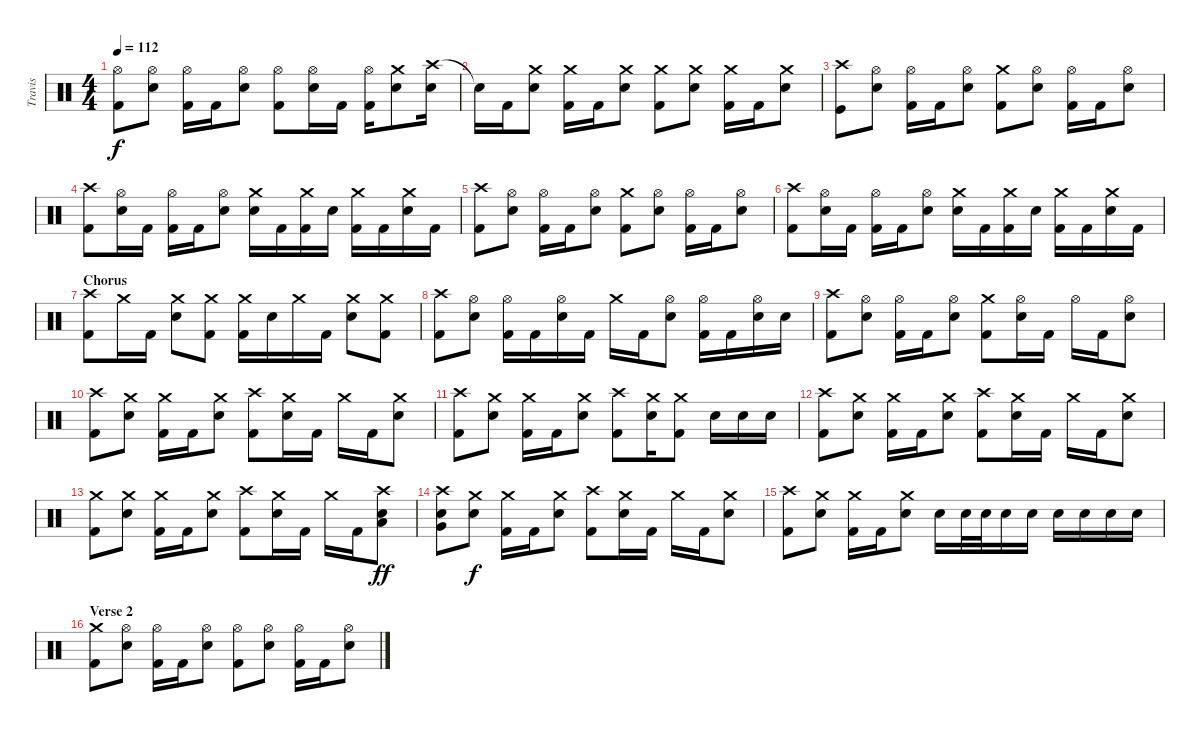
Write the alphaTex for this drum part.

\track ("Travis" "Travis") {instrument percussion}
\staff {score}
\articulation defaults
\ts (4 4)
\tempo 112
\clef neutral
\ks c
("Hi-Hat (open)" "Kick (hit) 2").8{dy f} ("Hi-Hat (open)" "Electric Snare (hit)").8 ("Hi-Hat (open)" "Kick (hit) 2").16 "Kick (hit) 2".16 ("Hi-Hat (open)" "Electric Snare (hit)").8 ("Hi-Hat (open)" "Kick (hit) 2").8 ("Hi-Hat (open)" "Electric Snare (hit)").16 "Kick (hit) 2".16 ("Hi-Hat (open)" "Kick (hit) 2").16 ("Crash medium (hit)" "Electric Snare (hit)").8 ("Crash high (hit)" "Electric Snare (hit)").16 |
"Snare (hit)"{t}.16 "Kick (hit) 2".16 ("Crash medium (hit)" "Electric Snare (hit)").8 ("Crash medium (hit)" "Kick (hit) 2").16 "Kick (hit) 2".16 ("Crash medium (hit)" "Electric Snare (hit)").8 ("Crash medium (hit)" "Kick (hit) 2").8 ("Crash medium (hit)" "Electric Snare (hit)").8 ("Crash medium (hit)" "Kick (hit) 2").16 "Kick (hit) 2".16 ("Crash medium (hit)" "Electric Snare (hit)").8 |
("Crash high (hit)" "Kick (hit)").8 ("Hi-Hat (open)" "Electric Snare (hit)").8 ("Hi-Hat (open)" "Kick (hit) 2").16 "Kick (hit) 2".16 ("Hi-Hat (open)" "Electric Snare (hit)").8 ("Crash medium (hit)" "Kick (hit) 2").8 ("Hi-Hat (open)" "Electric Snare (hit)").8 ("Hi-Hat (open)" "Kick (hit) 2").16 "Kick (hit) 2".16 ("Hi-Hat (open)" "Electric Snare (hit)").8 |
("Crash high (hit)" "Kick (hit) 2").8 ("Hi-Hat (open)" "Electric Snare (hit)").16 "Kick (hit) 2".16 ("Hi-Hat (open)" "Kick (hit) 2").16 "Kick (hit) 2".16 ("Hi-Hat (open)" "Electric Snare (hit)").8 ("Crash medium (hit)" "Electric Snare (hit)").16 "Kick (hit) 2".16 ("Crash medium (hit)" "Kick (hit) 2").16 "Electric Snare (hit)".16 ("Crash medium (hit)" "Kick (hit) 2").16 "Kick (hit) 2".16 ("Crash medium (hit)" "Electric Snare (hit)").16 "Kick (hit) 2".16 |
("Crash high (hit)" "Kick (hit) 2").8 ("Hi-Hat (open)" "Electric Snare (hit)").8 ("Hi-Hat (open)" "Kick (hit) 2").16 "Kick (hit) 2".16 ("Hi-Hat (open)" "Electric Snare (hit)").8 ("Crash medium (hit)" "Kick (hit) 2").8 ("Hi-Hat (open)" "Electric Snare (hit)").8 ("Hi-Hat (open)" "Kick (hit) 2").16 "Kick (hit) 2".16 ("Hi-Hat (open)" "Electric Snare (hit)").8 |
("Crash high (hit)" "Kick (hit) 2").8 ("Hi-Hat (open)" "Electric Snare (hit)").16 "Kick (hit) 2".16 ("Hi-Hat (open)" "Kick (hit) 2").16 "Kick (hit) 2".16 ("Hi-Hat (open)" "Electric Snare (hit)").8 ("Crash medium (hit)" "Electric Snare (hit)").16 "Kick (hit) 2".16 ("Crash medium (hit)" "Kick (hit) 2").16 "Electric Snare (hit)".16 ("Crash medium (hit)" "Kick (hit) 2").16 "Kick (hit) 2".16 ("Crash medium (hit)" "Electric Snare (hit)").16 "Kick (hit) 2".16 |
\section ("" "Chorus")
("Crash high (hit)" "Kick (hit) 2").8 "Crash medium (hit)".16 "Kick (hit) 2".16 ("Crash medium (hit)" "Electric Snare (hit)").8 ("Crash medium (hit)" "Kick (hit) 2").8 ("Crash medium (hit)" "Kick (hit) 2").16 "Electric Snare (hit)".16 "Crash medium (hit)".16 "Kick (hit) 2".16 ("Crash medium (hit)" "Electric Snare (hit)").8 ("Crash medium (hit)" "Kick (hit) 2").8 |
("Crash high (hit)" "Kick (hit) 2").8 ("Hi-Hat (open)" "Electric Snare (hit)").8 ("Hi-Hat (open)" "Kick (hit) 2").16 "Kick (hit) 2".16 ("Hi-Hat (open)" "Electric Snare (hit)").16 "Kick (hit) 2".16 "Crash medium (hit)".16 "Kick (hit) 2".16 ("Hi-Hat (open)" "Electric Snare (hit)").8 ("Hi-Hat (open)" "Kick (hit) 2").16 "Kick (hit) 2".16 ("Hi-Hat (open)" "Electric Snare (hit)").16 "Electric Snare (hit)".16 |
("Crash high (hit)" "Kick (hit) 2").8 ("Hi-Hat (open)" "Electric Snare (hit)").8 ("Hi-Hat (open)" "Kick (hit) 2").16 "Kick (hit) 2".16 ("Hi-Hat (open)" "Electric Snare (hit)").8 ("Crash medium (hit)" "Kick (hit) 2").8 ("Hi-Hat (open)" "Electric Snare (hit)").16 "Kick (hit) 2".16 "Hi-Hat (open)".16 "Kick (hit) 2".16 ("Hi-Hat (open)" "Electric Snare (hit)").8 |
("Crash high (hit)" "Kick (hit) 2").8 ("Crash medium (hit)" "Electric Snare (hit)").8 ("Crash medium (hit)" "Kick (hit) 2").16 "Kick (hit) 2".16 ("Crash medium (hit)" "Electric Snare (hit)").8 ("Crash high (hit)" "Kick (hit) 2").8 ("Crash medium (hit)" "Electric Snare (hit)").16 "Kick (hit) 2".16 "Crash medium (hit)".16 "Kick (hit) 2".16 ("Crash medium (hit)" "Electric Snare (hit)").8 |
("Crash high (hit)" "Kick (hit) 2").8 ("Crash medium (hit)" "Electric Snare (hit)").8 ("Crash medium (hit)" "Kick (hit) 2").16 "Kick (hit) 2".16 ("Crash medium (hit)" "Electric Snare (hit)").8 ("Crash high (hit)" "Kick (hit) 2").8 ("Crash medium (hit)" "Electric Snare (hit)").16 ("Crash medium (hit)" "Kick (hit) 2").8 "Electric Snare (hit)".16 "Electric Snare (hit)".16 "Electric Snare (hit)".16 |
("Crash high (hit)" "Kick (hit) 2").8 ("Crash medium (hit)" "Electric Snare (hit)").8 ("Crash medium (hit)" "Kick (hit) 2").16 "Kick (hit) 2".16 ("Crash medium (hit)" "Electric Snare (hit)").8 ("Crash high (hit)" "Kick (hit) 2").8 ("Crash medium (hit)" "Electric Snare (hit)").16 "Kick (hit) 2".16 "Crash medium (hit)".16 "Kick (hit) 2".16 ("Crash medium (hit)" "Electric Snare (hit)").8 |
("Crash medium (hit)" "Kick (hit) 2").8 ("Crash medium (hit)" "Electric Snare (hit)").8 ("Crash medium (hit)" "Kick (hit) 2").16 "Kick (hit) 2".16 ("Crash medium (hit)" "Electric Snare (hit)").8 ("Crash high (hit)" "Kick (hit) 2").8 ("Crash medium (hit)" "Electric Snare (hit)").16 "Kick (hit) 2".16 "Crash medium (hit)".16 "Kick (hit) 2".16 ("Crash high (hit)" "Low Tom (hit)" "Electric Snare (hit)").8{dy ff} |
("Crash high (hit)" "Very Low Tom (hit)" "Electric Snare (hit)").8 ("Crash medium (hit)" "Electric Snare (hit)").8{dy f} ("Crash medium (hit)" "Kick (hit) 2").16 "Kick (hit) 2".16 ("Crash medium (hit)" "Electric Snare (hit)").8 ("Crash high (hit)" "Kick (hit) 2").8 ("Crash medium (hit)" "Electric Snare (hit)").16 "Kick (hit) 2".16 "Crash medium (hit)".16 "Kick (hit) 2".16 ("Crash medium (hit)" "Electric Snare (hit)").8 |
("Crash high (hit)" "Kick (hit) 2").8 ("Crash medium (hit)" "Electric Snare (hit)").8 ("Crash medium (hit)" "Kick (hit) 2").16 "Kick (hit) 2".16 ("Crash medium (hit)" "Electric Snare (hit)").8 "Electric Snare (hit)".16 "Electric Snare (hit)".32 "Electric Snare (hit)".32 "Electric Snare (hit)".16 "Electric Snare (hit)".16 "Electric Snare (hit)".16 "Electric Snare (hit)".16 "Electric Snare (hit)".16 "Electric Snare (hit)".16 |
\section ("" "Verse 2")
("Crash medium (hit)" "Kick (hit) 2").8 ("Hi-Hat (open)" "Electric Snare (hit)").8 ("Hi-Hat (open)" "Kick (hit) 2").16 "Kick (hit) 2".16 ("Hi-Hat (open)" "Electric Snare (hit)").8 ("Hi-Hat (open)" "Kick (hit) 2").8 ("Hi-Hat (open)" "Electric Snare (hit)").8 ("Hi-Hat (open)" "Kick (hit) 2").16 "Kick (hit) 2".16 ("Hi-Hat (open)" "Electric Snare (hit)").8
